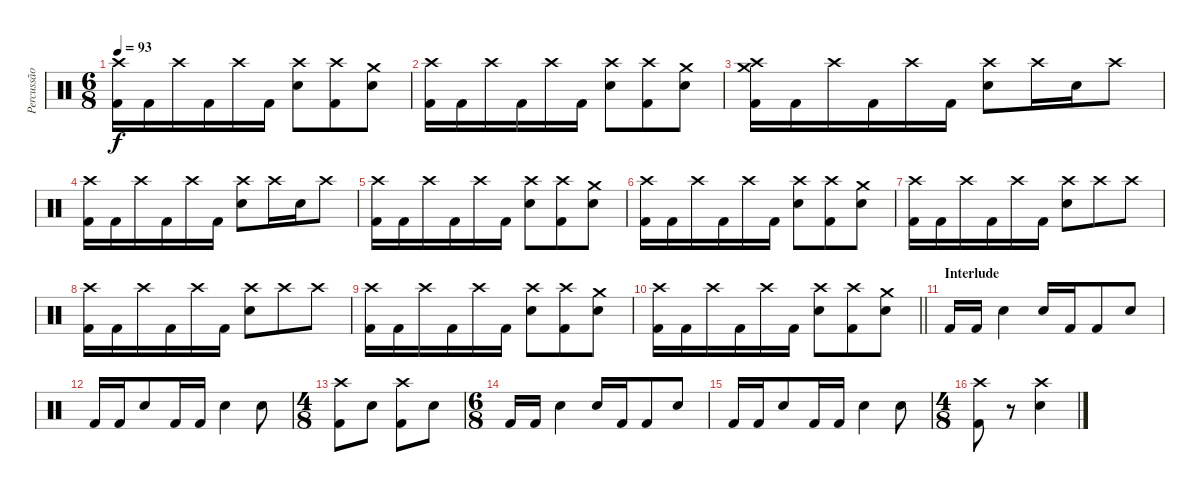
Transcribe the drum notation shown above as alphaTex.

\track ("Percussão" "Percussão") {instrument percussion}
\staff {score}
\articulation defaults
\ts (6 8)
\tempo 93
\clef neutral
\ks c
("Crash high (hit)" "Kick (hit) 2").16{dy f} "Kick (hit) 2".16 "Crash high (hit)".16 "Kick (hit) 2".16 "Crash high (hit)".16 "Kick (hit) 2".16 ("Crash high (hit)" "Snare (hit) 2").8 ("Crash high (hit)" "Kick (hit) 2").8 ("Crash medium (hit)" "Snare (hit) 2").8 |
("Crash high (hit)" "Kick (hit) 2").16 "Kick (hit) 2".16 "Crash high (hit)".16 "Kick (hit) 2".16 "Crash high (hit)".16 "Kick (hit) 2".16 ("Crash high (hit)" "Snare (hit) 2").8 ("Crash high (hit)" "Kick (hit) 2").8 ("Crash medium (hit)" "Snare (hit) 2").8 |
("Crash high (hit)" "Crash medium (hit)" "Kick (hit) 2").16 "Kick (hit) 2".16 "Crash high (hit)".16 "Kick (hit) 2".16 "Crash high (hit)".16 "Kick (hit) 2".16 ("Crash high (hit)" "Snare (hit) 2").8 "Crash high (hit)".16 "Snare (hit) 2".16 "Crash high (hit)".8 |
("Crash high (hit)" "Kick (hit) 2").16 "Kick (hit) 2".16 "Crash high (hit)".16 "Kick (hit) 2".16 "Crash high (hit)".16 "Kick (hit) 2".16 ("Crash high (hit)" "Snare (hit) 2").8 "Crash high (hit)".16 "Snare (hit) 2".16 "Crash high (hit)".8 |
("Crash high (hit)" "Kick (hit) 2").16 "Kick (hit) 2".16 "Crash high (hit)".16 "Kick (hit) 2".16 "Crash high (hit)".16 "Kick (hit) 2".16 ("Crash high (hit)" "Snare (hit) 2").8 ("Crash high (hit)" "Kick (hit) 2").8 ("Crash medium (hit)" "Snare (hit) 2").8 |
("Crash high (hit)" "Kick (hit) 2").16 "Kick (hit) 2".16 "Crash high (hit)".16 "Kick (hit) 2".16 "Crash high (hit)".16 "Kick (hit) 2".16 ("Crash high (hit)" "Snare (hit) 2").8 ("Crash high (hit)" "Kick (hit) 2").8 ("Crash medium (hit)" "Snare (hit) 2").8 |
("Crash high (hit)" "Kick (hit) 2").16 "Kick (hit) 2".16 "Crash high (hit)".16 "Kick (hit) 2".16 "Crash high (hit)".16 "Kick (hit) 2".16 ("Crash high (hit)" "Snare (hit) 2").8 "Crash high (hit)".8 "Crash high (hit)".8 |
("Crash high (hit)" "Kick (hit) 2").16 "Kick (hit) 2".16 "Crash high (hit)".16 "Kick (hit) 2".16 "Crash high (hit)".16 "Kick (hit) 2".16 ("Crash high (hit)" "Snare (hit) 2").8 "Crash high (hit)".8 "Crash high (hit)".8 |
("Crash high (hit)" "Kick (hit) 2").16 "Kick (hit) 2".16 "Crash high (hit)".16 "Kick (hit) 2".16 "Crash high (hit)".16 "Kick (hit) 2".16 ("Crash high (hit)" "Snare (hit) 2").8 ("Crash high (hit)" "Kick (hit) 2").8 ("Crash medium (hit)" "Snare (hit) 2").8 |
\barLineRight lightlight
("Crash high (hit)" "Kick (hit) 2").16 "Kick (hit) 2".16 "Crash high (hit)".16 "Kick (hit) 2".16 "Crash high (hit)".16 "Kick (hit) 2".16 ("Crash high (hit)" "Snare (hit) 2").8 ("Crash high (hit)" "Kick (hit) 2").8 ("Crash medium (hit)" "Snare (hit) 2").8 |
\section ("" "Interlude")
"Kick (hit) 2".16 "Kick (hit) 2".16 "Snare (hit) 2".4 "Snare (hit) 2".16 "Kick (hit) 2".16 "Kick (hit) 2".8 "Snare (hit) 2".8 |
"Kick (hit) 2".16 "Kick (hit) 2".16 "Snare (hit) 2".8 "Kick (hit) 2".16 "Kick (hit) 2".16 "Snare (hit) 2".4 "Snare (hit) 2".8 |
\ts (4 8)
("Crash high (hit)" "Kick (hit) 2").8 "Snare (hit) 2".8 ("Crash high (hit)" "Kick (hit) 2").8 "Snare (hit) 2".8 |
\ts (6 8)
"Kick (hit) 2".16 "Kick (hit) 2".16 "Snare (hit) 2".4 "Snare (hit) 2".16 "Kick (hit) 2".16 "Kick (hit) 2".8 "Snare (hit) 2".8 |
"Kick (hit) 2".16 "Kick (hit) 2".16 "Snare (hit) 2".8 "Kick (hit) 2".16 "Kick (hit) 2".16 "Snare (hit) 2".4 "Snare (hit) 2".8 |
\ts (4 8)
("Crash high (hit)" "Kick (hit) 2").8 r.8 ("Crash high (hit)" "Snare (hit) 2").4
